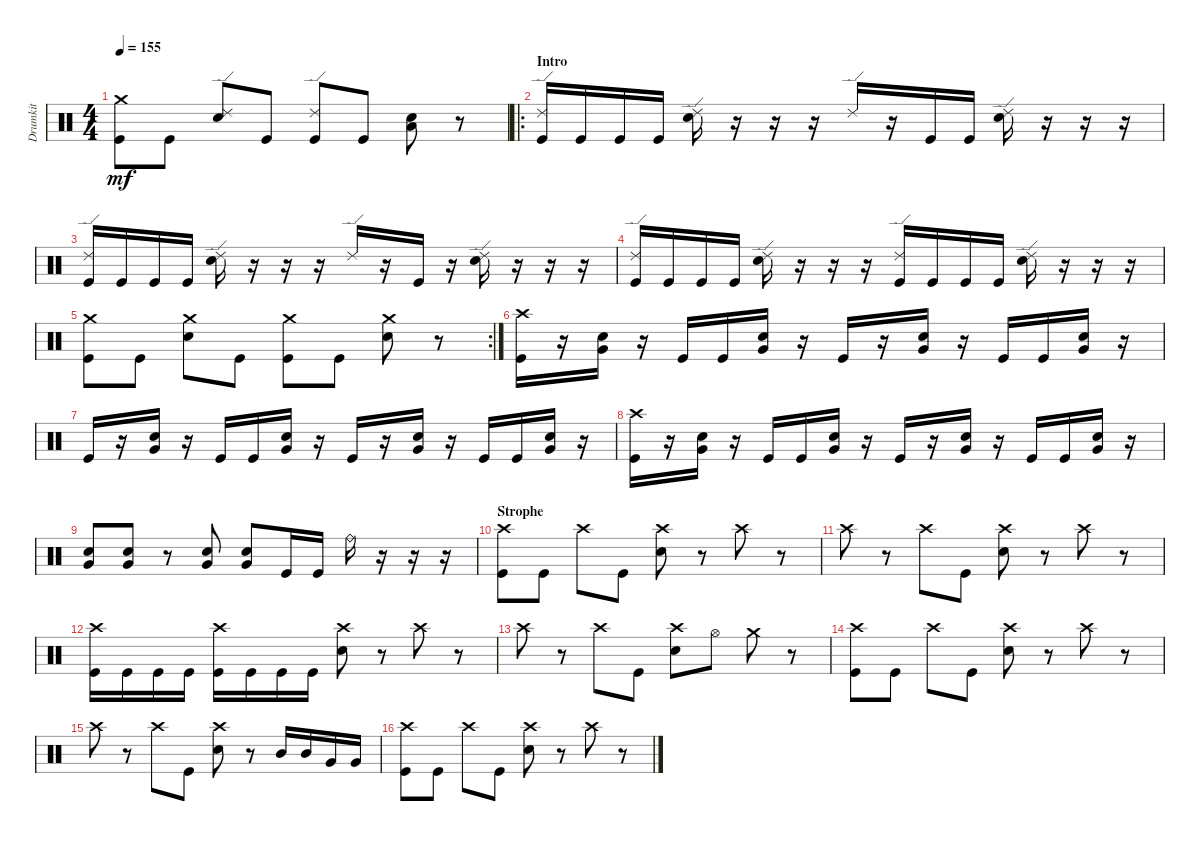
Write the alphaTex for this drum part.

\track ("Drumkit" "Drumkit") {instrument percussion}
\staff {score}
\articulation defaults
\ts (4 4)
\tempo 155
\clef neutral
\ks c
("Kick (hit)" "Crash medium (hit)").8{dy mf} "Kick (hit)".8 ("Snare (hit) 2" "Ride (edge) 2").8 "Kick (hit)".8 ("Kick (hit)" "Ride (edge) 2").8 "Kick (hit)".8 ("Snare (hit) 2" "Low Floor Tom (hit)").8 r.8 |
\ro
\section ("" "Intro")
("Kick (hit)" "Ride (edge) 2").16 "Kick (hit)".16 "Kick (hit)".16 "Kick (hit)".16 ("Snare (hit) 2" "Ride (edge) 2").16 r.16 r.16 r.16 "Ride (edge) 2".16 r.16 "Kick (hit)".16 "Kick (hit)".16 ("Snare (hit) 2" "Ride (edge) 2").16 r.16 r.16 r.16 |
("Kick (hit)" "Ride (edge) 2").16 "Kick (hit)".16 "Kick (hit)".16 "Kick (hit)".16 ("Snare (hit) 2" "Ride (edge) 2").16 r.16 r.16 r.16 "Ride (edge) 2".16 r.16 "Kick (hit)".16 r.16 ("Snare (hit) 2" "Ride (edge) 2").16 r.16 r.16 r.16 |
("Kick (hit)" "Ride (edge) 2").16 "Kick (hit)".16 "Kick (hit)".16 "Kick (hit)".16 ("Snare (hit) 2" "Ride (edge) 2").16 r.16 r.16 r.16 ("Kick (hit)" "Ride (edge) 2").16 "Kick (hit)".16 "Kick (hit)".16 "Kick (hit)".16 ("Snare (hit) 2" "Ride (edge) 2").16 r.16 r.16 r.16 |
\rc 2
("Crash medium (hit)" "Kick (hit)").8 "Kick (hit)".8 ("Snare (hit) 2" "Crash medium (hit)").8 "Kick (hit)".8 ("Kick (hit)" "Crash medium (hit)").8 "Kick (hit)".8 ("Snare (hit) 2" "Crash medium (hit)").8 r.8 |
("Kick (hit)" "Crash high (hit)").16 r.16 ("Snare (hit) 2" "Very Low Tom (hit)").16 r.16 "Kick (hit)".16 "Kick (hit)".16 ("Snare (hit) 2" "Very Low Tom (hit)").16 r.16 "Kick (hit)".16 r.16 ("Snare (hit) 2" "Very Low Tom (hit)").16 r.16 "Kick (hit)".16 "Kick (hit)".16 ("Snare (hit) 2" "Very Low Tom (hit)").16 r.16 |
"Kick (hit)".16 r.16 ("Snare (hit) 2" "Very Low Tom (hit)").16 r.16 "Kick (hit)".16 "Kick (hit)".16 ("Snare (hit) 2" "Very Low Tom (hit)").16 r.16 "Kick (hit)".16 r.16 ("Snare (hit) 2" "Very Low Tom (hit)").16 r.16 "Kick (hit)".16 "Kick (hit)".16 ("Snare (hit) 2" "Very Low Tom (hit)").16 r.16 |
("Kick (hit)" "Crash high (hit)").16 r.16 ("Snare (hit) 2" "Very Low Tom (hit)").16 r.16 "Kick (hit)".16 "Kick (hit)".16 ("Snare (hit) 2" "Very Low Tom (hit)").16 r.16 "Kick (hit)".16 r.16 ("Snare (hit) 2" "Very Low Tom (hit)").16 r.16 "Kick (hit)".16 "Kick (hit)".16 ("Snare (hit) 2" "Very Low Tom (hit)").16 r.16 |
("Very Low Tom (hit)" "Snare (hit) 2").8 ("Very Low Tom (hit)" "Snare (hit) 2").8 r.8 ("Very Low Tom (hit)" "Snare (hit) 2").8 ("Very Low Tom (hit)" "Snare (hit) 2").8 "Kick (hit)".16 "Kick (hit)".16 "Ride (bell)".16 r.16 r.16 r.16 |
\section ("" "Strophe")
("Kick (hit)" "Crash high (hit)").8 "Kick (hit)".8 "Crash high (hit)".8 "Kick (hit)".8 ("Crash high (hit)" "Snare (hit) 2").8 r.8 "Crash high (hit)".8 r.8 |
"Crash high (hit)".8 r.8 "Crash high (hit)".8 "Kick (hit)".8 ("Crash high (hit)" "Snare (hit) 2").8 r.8 "Crash high (hit)".8 r.8 |
("Kick (hit)" "Crash high (hit)").16 "Kick (hit)".16 "Kick (hit)".16 "Kick (hit)".16 ("Kick (hit)" "Crash high (hit)").16 "Kick (hit)".16 "Kick (hit)".16 "Kick (hit)".16 ("Crash high (hit)" "Snare (hit) 2").8 r.8 "Crash high (hit)".8 r.8 |
"Crash high (hit)".8 r.8 "Crash high (hit)".8 "Kick (hit)".8 ("Crash high (hit)" "Snare (hit) 2").8 "Hi-Hat (open)".8 "Crash medium (hit)".8 r.8 |
("Kick (hit)" "Crash high (hit)").8 "Kick (hit)".8 "Crash high (hit)".8 "Kick (hit)".8 ("Crash high (hit)" "Snare (hit) 2").8 r.8 "Crash high (hit)".8 r.8 |
"Crash high (hit)".8 r.8 "Crash high (hit)".8 "Kick (hit)".8 ("Crash high (hit)" "Snare (hit) 2").8 r.8 "Mid Tom (hit)".16 "Mid Tom (hit)".16 "Very Low Tom (hit)".16 "Very Low Tom (hit)".16 |
("Kick (hit)" "Crash high (hit)").8 "Kick (hit)".8 "Crash high (hit)".8 "Kick (hit)".8 ("Crash high (hit)" "Snare (hit) 2").8 r.8 "Crash high (hit)".8 r.8
